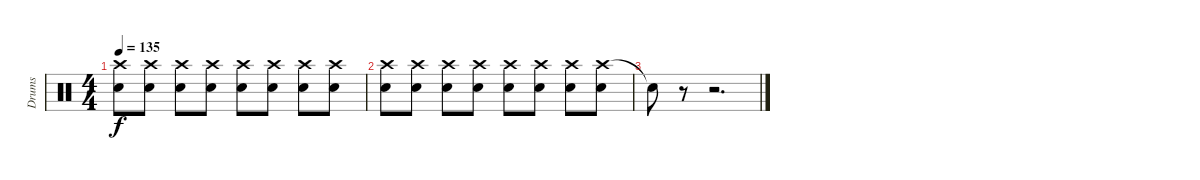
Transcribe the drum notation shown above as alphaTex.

\track ("Drums" "Drums") {instrument percussion}
\staff {score}
\articulation defaults
\ts (4 4)
\tempo 135
\clef neutral
\ks c
("Crash high (hit)" "Electric Snare (hit)").8{dy f} ("Crash high (hit)" "Electric Snare (hit)").8 ("Crash high (hit)" "Electric Snare (hit)").8 ("Crash high (hit)" "Electric Snare (hit)").8 ("Crash high (hit)" "Electric Snare (hit)").8 ("Crash high (hit)" "Electric Snare (hit)").8 ("Crash high (hit)" "Electric Snare (hit)").8 ("Crash high (hit)" "Electric Snare (hit)").8 |
("Crash high (hit)" "Electric Snare (hit)").8 ("Crash high (hit)" "Electric Snare (hit)").8 ("Crash high (hit)" "Electric Snare (hit)").8 ("Crash high (hit)" "Electric Snare (hit)").8 ("Crash high (hit)" "Electric Snare (hit)").8 ("Crash high (hit)" "Electric Snare (hit)").8 ("Crash high (hit)" "Electric Snare (hit)").8 ("Crash high (hit)" "Electric Snare (hit)").8 |
"Snare (hit)"{t}.8 r.8 r.2{d}
